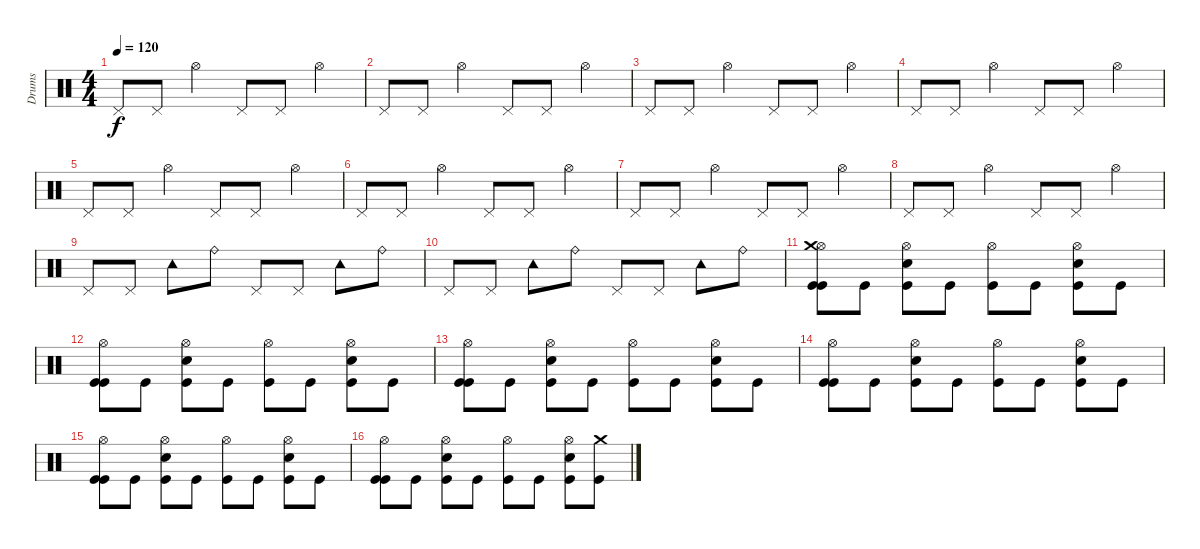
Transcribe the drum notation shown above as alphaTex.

\track ("Drums" "Drums") {instrument percussion}
\staff {score}
\articulation defaults
\ts (4 4)
\tempo 120
\clef neutral
\ks c "Pedal Hi-Hat (hit)".8{dy f} "Pedal Hi-Hat (hit)".8 "Hi-Hat (open)".4 "Pedal Hi-Hat (hit)".8 "Pedal Hi-Hat (hit)".8 "Hi-Hat (open)".4
|
"Pedal Hi-Hat (hit)".8 "Pedal Hi-Hat (hit)".8 "Hi-Hat (open)".4 "Pedal Hi-Hat (hit)".8 "Pedal Hi-Hat (hit)".8 "Hi-Hat (open)".4 |
"Pedal Hi-Hat (hit)".8 "Pedal Hi-Hat (hit)".8 "Hi-Hat (open)".4 "Pedal Hi-Hat (hit)".8 "Pedal Hi-Hat (hit)".8 "Hi-Hat (open)".4 |
"Pedal Hi-Hat (hit)".8 "Pedal Hi-Hat (hit)".8 "Hi-Hat (open)".4 "Pedal Hi-Hat (hit)".8 "Pedal Hi-Hat (hit)".8 "Hi-Hat (open)".4 |
"Pedal Hi-Hat (hit)".8 "Pedal Hi-Hat (hit)".8 "Hi-Hat (open)".4 "Pedal Hi-Hat (hit)".8 "Pedal Hi-Hat (hit)".8 "Hi-Hat (open)".4 |
"Pedal Hi-Hat (hit)".8 "Pedal Hi-Hat (hit)".8 "Hi-Hat (open)".4 "Pedal Hi-Hat (hit)".8 "Pedal Hi-Hat (hit)".8 "Hi-Hat (open)".4 |
"Pedal Hi-Hat (hit)".8 "Pedal Hi-Hat (hit)".8 "Hi-Hat (open)".4 "Pedal Hi-Hat (hit)".8 "Pedal Hi-Hat (hit)".8 "Hi-Hat (open)".4 |
"Pedal Hi-Hat (hit)".8 "Pedal Hi-Hat (hit)".8 "Hi-Hat (open)".4 "Pedal Hi-Hat (hit)".8 "Pedal Hi-Hat (hit)".8 "Hi-Hat (open)".4 |
"Pedal Hi-Hat (hit)".8 "Pedal Hi-Hat (hit)".8 "Tambourine (hit)".8 "Ride (bell)".8 "Pedal Hi-Hat (hit)".8 "Pedal Hi-Hat (hit)".8 "Tambourine (hit)".8 "Ride (bell)".8 |
"Pedal Hi-Hat (hit)".8 "Pedal Hi-Hat (hit)".8 "Tambourine (hit)".8 "Ride (bell)".8 "Pedal Hi-Hat (hit)".8 "Pedal Hi-Hat (hit)".8 "Tambourine (hit)".8 "Ride (bell)".8 |
("Hi-Hat (open)" "Crash medium (hit)" "Kick (hit)" "Kick (hit)").8 "Kick (hit)".8 ("Hi-Hat (open)" "Snare (hit) 2" "Kick (hit)").8 "Kick (hit)".8 ("Hi-Hat (open)" "Kick (hit)").8 "Kick (hit)".8 ("Hi-Hat (open)" "Snare (hit) 2" "Kick (hit)").8 "Kick (hit)".8 |
("Hi-Hat (open)" "Kick (hit)" "Kick (hit)").8 "Kick (hit)".8 ("Hi-Hat (open)" "Snare (hit) 2" "Kick (hit)").8 "Kick (hit)".8 ("Hi-Hat (open)" "Kick (hit)").8 "Kick (hit)".8 ("Hi-Hat (open)" "Snare (hit) 2" "Kick (hit)").8 "Kick (hit)".8 |
("Hi-Hat (open)" "Kick (hit)" "Kick (hit)").8 "Kick (hit)".8 ("Hi-Hat (open)" "Snare (hit) 2" "Kick (hit)").8 "Kick (hit)".8 ("Hi-Hat (open)" "Kick (hit)").8 "Kick (hit)".8 ("Hi-Hat (open)" "Snare (hit) 2" "Kick (hit)").8 "Kick (hit)".8 |
("Hi-Hat (open)" "Kick (hit)" "Kick (hit)").8 "Kick (hit)".8 ("Hi-Hat (open)" "Snare (hit) 2" "Kick (hit)").8 "Kick (hit)".8 ("Hi-Hat (open)" "Kick (hit)").8 "Kick (hit)".8 ("Hi-Hat (open)" "Snare (hit) 2" "Kick (hit)").8 "Kick (hit)".8 |
("Hi-Hat (open)" "Kick (hit)" "Kick (hit)").8 "Kick (hit)".8 ("Hi-Hat (open)" "Snare (hit) 2" "Kick (hit)").8 "Kick (hit)".8 ("Hi-Hat (open)" "Kick (hit)").8 "Kick (hit)".8 ("Hi-Hat (open)" "Snare (hit) 2" "Kick (hit)").8 "Kick (hit)".8 |
("Hi-Hat (open)" "Kick (hit)" "Kick (hit)").8 "Kick (hit)".8 ("Hi-Hat (open)" "Snare (hit) 2" "Kick (hit)").8 "Kick (hit)".8 ("Hi-Hat (open)" "Kick (hit)").8 "Kick (hit)".8 ("Hi-Hat (open)" "Snare (hit) 2" "Kick (hit)").8 ("Crash medium (hit)" "Kick (hit)").8
